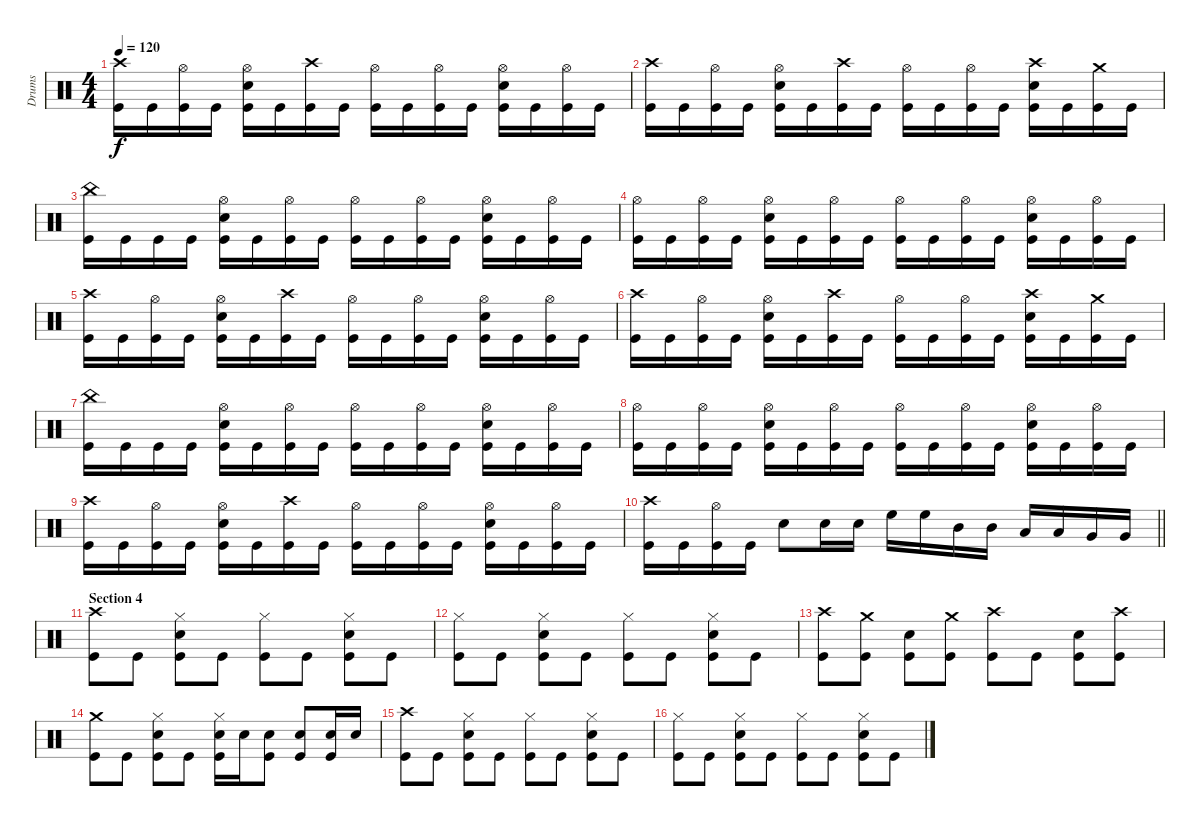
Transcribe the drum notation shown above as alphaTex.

\track ("Drums" "Drums") {instrument percussion}
\staff {score}
\articulation defaults
\ts (4 4)
\tempo 120
\clef neutral
\ks c
("Crash high (hit)" "Kick (hit)").16{dy f} "Kick (hit)".16 ("Hi-Hat (open)" "Kick (hit)").16 "Kick (hit)".16 ("Hi-Hat (open)" "Snare (hit) 2" "Kick (hit)").16 "Kick (hit)".16 ("Crash high (hit)" "Kick (hit)").16 "Kick (hit)".16 ("Hi-Hat (open)" "Kick (hit)").16 "Kick (hit)".16 ("Hi-Hat (open)" "Kick (hit)").16 "Kick (hit)".16 ("Hi-Hat (open)" "Snare (hit) 2" "Kick (hit)").16 "Kick (hit)".16 ("Hi-Hat (open)" "Kick (hit)").16 "Kick (hit)".16 |
("Crash high (hit)" "Kick (hit)").16 "Kick (hit)".16 ("Hi-Hat (open)" "Kick (hit)").16 "Kick (hit)".16 ("Hi-Hat (open)" "Snare (hit) 2" "Kick (hit)").16 "Kick (hit)".16 ("Crash high (hit)" "Kick (hit)").16 "Kick (hit)".16 ("Hi-Hat (open)" "Kick (hit)").16 "Kick (hit)".16 ("Hi-Hat (open)" "Kick (hit)").16 "Kick (hit)".16 ("Crash high (hit)" "Snare (hit) 2" "Kick (hit)").16 "Kick (hit)".16 ("Crash medium (hit)" "Kick (hit)").16 "Kick (hit)".16 |
("China (hit)" "Kick (hit)").16 "Kick (hit)".16 "Kick (hit)".16 "Kick (hit)".16 ("Hi-Hat (open)" "Snare (hit) 2" "Kick (hit)").16 "Kick (hit)".16 ("Hi-Hat (open)" "Kick (hit)").16 "Kick (hit)".16 ("Hi-Hat (open)" "Kick (hit)").16 "Kick (hit)".16 ("Hi-Hat (open)" "Kick (hit)").16 "Kick (hit)".16 ("Hi-Hat (open)" "Snare (hit) 2" "Kick (hit)").16 "Kick (hit)".16 ("Hi-Hat (open)" "Kick (hit)").16 "Kick (hit)".16 |
("Hi-Hat (open)" "Kick (hit)").16 "Kick (hit)".16 ("Hi-Hat (open)" "Kick (hit)").16 "Kick (hit)".16 ("Hi-Hat (open)" "Snare (hit) 2" "Kick (hit)").16 "Kick (hit)".16 ("Hi-Hat (open)" "Kick (hit)").16 "Kick (hit)".16 ("Hi-Hat (open)" "Kick (hit)").16 "Kick (hit)".16 ("Hi-Hat (open)" "Kick (hit)").16 "Kick (hit)".16 ("Hi-Hat (open)" "Snare (hit) 2" "Kick (hit)").16 "Kick (hit)".16 ("Hi-Hat (open)" "Kick (hit)").16 "Kick (hit)".16 |
("Crash high (hit)" "Kick (hit)").16 "Kick (hit)".16 ("Hi-Hat (open)" "Kick (hit)").16 "Kick (hit)".16 ("Hi-Hat (open)" "Snare (hit) 2" "Kick (hit)").16 "Kick (hit)".16 ("Crash high (hit)" "Kick (hit)").16 "Kick (hit)".16 ("Hi-Hat (open)" "Kick (hit)").16 "Kick (hit)".16 ("Hi-Hat (open)" "Kick (hit)").16 "Kick (hit)".16 ("Hi-Hat (open)" "Snare (hit) 2" "Kick (hit)").16 "Kick (hit)".16 ("Hi-Hat (open)" "Kick (hit)").16 "Kick (hit)".16 |
("Crash high (hit)" "Kick (hit)").16 "Kick (hit)".16 ("Hi-Hat (open)" "Kick (hit)").16 "Kick (hit)".16 ("Hi-Hat (open)" "Snare (hit) 2" "Kick (hit)").16 "Kick (hit)".16 ("Crash high (hit)" "Kick (hit)").16 "Kick (hit)".16 ("Hi-Hat (open)" "Kick (hit)").16 "Kick (hit)".16 ("Hi-Hat (open)" "Kick (hit)").16 "Kick (hit)".16 ("Crash high (hit)" "Snare (hit) 2" "Kick (hit)").16 "Kick (hit)".16 ("Crash medium (hit)" "Kick (hit)").16 "Kick (hit)".16 |
("China (hit)" "Kick (hit)").16 "Kick (hit)".16 "Kick (hit)".16 "Kick (hit)".16 ("Hi-Hat (open)" "Snare (hit) 2" "Kick (hit)").16 "Kick (hit)".16 ("Hi-Hat (open)" "Kick (hit)").16 "Kick (hit)".16 ("Hi-Hat (open)" "Kick (hit)").16 "Kick (hit)".16 ("Hi-Hat (open)" "Kick (hit)").16 "Kick (hit)".16 ("Hi-Hat (open)" "Snare (hit) 2" "Kick (hit)").16 "Kick (hit)".16 ("Hi-Hat (open)" "Kick (hit)").16 "Kick (hit)".16 |
("Hi-Hat (open)" "Kick (hit)").16 "Kick (hit)".16 ("Hi-Hat (open)" "Kick (hit)").16 "Kick (hit)".16 ("Hi-Hat (open)" "Snare (hit) 2" "Kick (hit)").16 "Kick (hit)".16 ("Hi-Hat (open)" "Kick (hit)").16 "Kick (hit)".16 ("Hi-Hat (open)" "Kick (hit)").16 "Kick (hit)".16 ("Hi-Hat (open)" "Kick (hit)").16 "Kick (hit)".16 ("Hi-Hat (open)" "Snare (hit) 2" "Kick (hit)").16 "Kick (hit)".16 ("Hi-Hat (open)" "Kick (hit)").16 "Kick (hit)".16 |
("Crash high (hit)" "Kick (hit)").16 "Kick (hit)".16 ("Hi-Hat (open)" "Kick (hit)").16 "Kick (hit)".16 ("Hi-Hat (open)" "Snare (hit) 2" "Kick (hit)").16 "Kick (hit)".16 ("Crash high (hit)" "Kick (hit)").16 "Kick (hit)".16 ("Hi-Hat (open)" "Kick (hit)").16 "Kick (hit)".16 ("Hi-Hat (open)" "Kick (hit)").16 "Kick (hit)".16 ("Hi-Hat (open)" "Snare (hit) 2" "Kick (hit)").16 "Kick (hit)".16 ("Hi-Hat (open)" "Kick (hit)").16 "Kick (hit)".16 |
\barLineRight lightlight
("Crash high (hit)" "Kick (hit)").16 "Kick (hit)".16 ("Hi-Hat (open)" "Kick (hit)").16 "Kick (hit)".16 "Snare (hit) 2".8 "Snare (hit) 2".16 "Snare (hit) 2".16 "High Floor Tom (hit)".16 "High Floor Tom (hit)".16 "Mid Tom (hit)".16 "Mid Tom (hit)".16 "Low Tom (hit)".16 "Low Tom (hit)".16 "Very Low Tom (hit)".16 "Very Low Tom (hit)".16 |
\section ("" "Section 4")
("Crash high (hit)" "Kick (hit)").8 "Kick (hit)".8 ("Hi-Hat (closed)" "Snare (hit) 2" "Kick (hit)").8 "Kick (hit)".8 ("Hi-Hat (closed)" "Kick (hit)").8 "Kick (hit)".8 ("Hi-Hat (closed)" "Snare (hit) 2" "Kick (hit)").8 "Kick (hit)".8 |
("Hi-Hat (closed)" "Kick (hit)").8 "Kick (hit)".8 ("Hi-Hat (closed)" "Snare (hit) 2" "Kick (hit)").8 "Kick (hit)".8 ("Hi-Hat (closed)" "Kick (hit)").8 "Kick (hit)".8 ("Hi-Hat (closed)" "Snare (hit) 2" "Kick (hit)").8 "Kick (hit)".8 |
("Crash high (hit)" "Kick (hit)").8 ("Crash medium (hit)" "Kick (hit)").8 ("Snare (hit) 2" "Kick (hit)").8 ("Crash medium (hit)" "Kick (hit)").8 ("Crash high (hit)" "Kick (hit)").8 "Kick (hit)".8 ("Snare (hit) 2" "Kick (hit)").8 ("Crash high (hit)" "Kick (hit)").8 |
("Crash medium (hit)" "Kick (hit)").8 "Kick (hit)".8 ("Hi-Hat (closed)" "Snare (hit) 2" "Kick (hit)").8 "Kick (hit)".8 ("Hi-Hat (closed)" "Snare (hit) 2" "Kick (hit)").16 "Snare (hit) 2".16 ("Snare (hit) 2" "Kick (hit)").8 ("Snare (hit) 2" "Kick (hit)").8 ("Snare (hit) 2" "Kick (hit)").16 "Snare (hit) 2".16 |
("Crash high (hit)" "Kick (hit)").8 "Kick (hit)".8 ("Hi-Hat (closed)" "Snare (hit) 2" "Kick (hit)").8 "Kick (hit)".8 ("Hi-Hat (closed)" "Kick (hit)").8 "Kick (hit)".8 ("Hi-Hat (closed)" "Snare (hit) 2" "Kick (hit)").8 "Kick (hit)".8 |
("Hi-Hat (closed)" "Kick (hit)").8 "Kick (hit)".8 ("Hi-Hat (closed)" "Snare (hit) 2" "Kick (hit)").8 "Kick (hit)".8 ("Hi-Hat (closed)" "Kick (hit)").8 "Kick (hit)".8 ("Hi-Hat (closed)" "Snare (hit) 2" "Kick (hit)").8 "Kick (hit)".8
